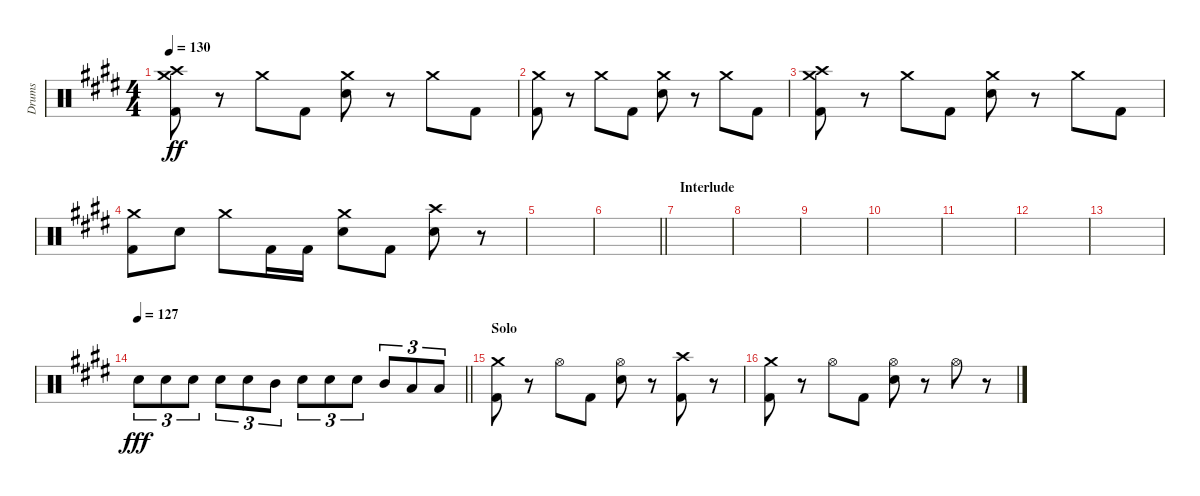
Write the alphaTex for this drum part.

\track ("Drums" "Drums") {instrument percussion}
\staff {score}
\articulation defaults
\ts (4 4)
\tempo 130
\clef neutral
\ks c#minor
("Crash medium (hit)" "Crash high (hit)" "Kick (hit) 2").8{dy ff} r.8 "Crash medium (hit)".8 "Kick (hit) 2".8 ("Crash medium (hit)" "Electric Snare (hit)").8 r.8 "Crash medium (hit)".8 "Kick (hit) 2".8 |
("Crash medium (hit)" "Kick (hit) 2").8 r.8 "Crash medium (hit)".8 "Kick (hit) 2".8 ("Crash medium (hit)" "Electric Snare (hit)").8 r.8 "Crash medium (hit)".8 "Kick (hit) 2".8 |
("Crash medium (hit)" "Crash high (hit)" "Kick (hit) 2").8 r.8 "Crash medium (hit)".8 "Kick (hit) 2".8 ("Crash medium (hit)" "Electric Snare (hit)").8 r.8 "Crash medium (hit)".8 "Kick (hit) 2".8 |
("Crash medium (hit)" "Kick (hit) 2").8 "Electric Snare (hit)".8 "Crash medium (hit)".8 "Kick (hit) 2".16 "Kick (hit) 2".16 ("Crash medium (hit)" "Electric Snare (hit)").8 "Kick (hit) 2".8 ("Crash high (hit)" "Electric Snare (hit)").8 r.8 |
|
\barLineRight lightlight
|
\section ("" "Interlude")
|
|
|
|
|
|
|
\tempo 127
\barLineRight lightlight "Electric Snare (hit)".8{tu (3 2) dy fff} "Electric Snare (hit)".8{tu (3 2)} "Electric Snare (hit)".8{tu (3 2)} "Electric Snare (hit)".8{tu (3 2)} "Electric Snare (hit)".8{tu (3 2)} "Mid Tom (hit)".8{tu (3 2)} "Electric Snare (hit)".8{tu (3 2)} "Electric Snare (hit)".8{tu (3 2)} "Electric Snare (hit)".8{tu (3 2)} "Mid Tom (hit)".8{tu (3 2)} "Low Tom (hit)".8{tu (3 2)} "Low Tom (hit)".8{tu (3 2)}
|
\section ("" "Solo")
("Crash medium (hit)" "Kick (hit) 2").8 r.8 "Hi-Hat (open)".8 "Kick (hit) 2".8 ("Hi-Hat (open)" "Electric Snare (hit)").8 r.8 ("Crash high (hit)" "Kick (hit) 2").8 r.8 |
("Crash medium (hit)" "Kick (hit) 2").8 r.8 "Hi-Hat (open)".8 "Kick (hit) 2".8 ("Hi-Hat (open)" "Electric Snare (hit)").8 r.8 "Hi-Hat (open)".8 r.8
